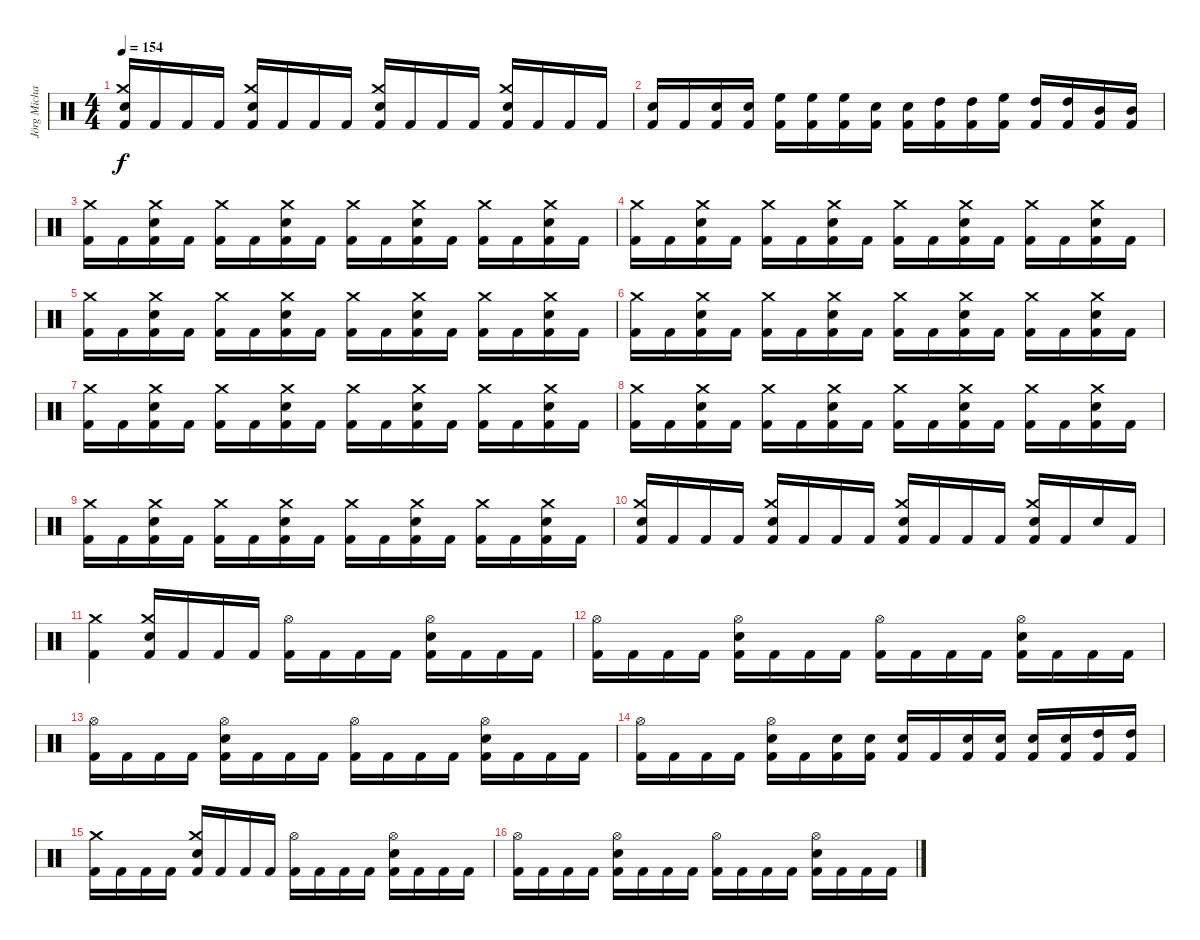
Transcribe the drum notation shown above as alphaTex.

\track ("Jörg Michael" "Jörg Micha") {instrument percussion}
\staff {score}
\articulation defaults
\ts (4 4)
\tempo 154
\clef neutral
\ks c
("Snare (hit) 2" "Crash medium (hit)" "Kick (hit) 2").16{dy f} "Kick (hit) 2".16 "Kick (hit) 2".16 "Kick (hit) 2".16 ("Snare (hit) 2" "Crash medium (hit)" "Kick (hit) 2").16 "Kick (hit) 2".16 "Kick (hit) 2".16 "Kick (hit) 2".16 ("Snare (hit) 2" "Crash medium (hit)" "Kick (hit) 2").16 "Kick (hit) 2".16 "Kick (hit) 2".16 "Kick (hit) 2".16 ("Snare (hit) 2" "Crash medium (hit)" "Kick (hit) 2").16 "Kick (hit) 2".16 "Kick (hit) 2".16 "Kick (hit) 2".16 |
("Snare (hit) 2" "Kick (hit) 2").16 "Kick (hit) 2".16 ("Snare (hit) 2" "Kick (hit) 2").16 ("Snare (hit) 2" "Kick (hit) 2").16 ("High Floor Tom (hit)" "Kick (hit) 2").16 ("High Floor Tom (hit)" "Kick (hit) 2").16 ("High Floor Tom (hit)" "Kick (hit) 2").16 ("Snare (hit) 2" "Kick (hit) 2").16 ("Snare (hit) 2" "Kick (hit) 2").16 ("High Tom (hit)" "Kick (hit) 2").16 ("High Tom (hit)" "Kick (hit) 2").16 ("High Floor Tom (hit)" "Kick (hit) 2").16 ("High Tom (hit)" "Kick (hit) 2").16 ("High Tom (hit)" "Kick (hit) 2").16 ("Mid Tom (hit)" "Kick (hit) 2").16 ("Mid Tom (hit)" "Kick (hit) 2").16 |
("Crash medium (hit)" "Kick (hit) 2").16 "Kick (hit) 2".16 ("Snare (hit) 2" "Crash medium (hit)" "Kick (hit) 2").16 "Kick (hit) 2".16 ("Crash medium (hit)" "Kick (hit) 2").16 "Kick (hit) 2".16 ("Snare (hit) 2" "Crash medium (hit)" "Kick (hit) 2").16 "Kick (hit) 2".16 ("Crash medium (hit)" "Kick (hit) 2").16 "Kick (hit) 2".16 ("Snare (hit) 2" "Crash medium (hit)" "Kick (hit) 2").16 "Kick (hit) 2".16 ("Crash medium (hit)" "Kick (hit) 2").16 "Kick (hit) 2".16 ("Snare (hit) 2" "Crash medium (hit)" "Kick (hit) 2").16 "Kick (hit) 2".16 |
("Crash medium (hit)" "Kick (hit) 2").16 "Kick (hit) 2".16 ("Snare (hit) 2" "Crash medium (hit)" "Kick (hit) 2").16 "Kick (hit) 2".16 ("Crash medium (hit)" "Kick (hit) 2").16 "Kick (hit) 2".16 ("Snare (hit) 2" "Crash medium (hit)" "Kick (hit) 2").16 "Kick (hit) 2".16 ("Crash medium (hit)" "Kick (hit) 2").16 "Kick (hit) 2".16 ("Snare (hit) 2" "Crash medium (hit)" "Kick (hit) 2").16 "Kick (hit) 2".16 ("Crash medium (hit)" "Kick (hit) 2").16 "Kick (hit) 2".16 ("Snare (hit) 2" "Crash medium (hit)" "Kick (hit) 2").16 "Kick (hit) 2".16 |
("Crash medium (hit)" "Kick (hit) 2").16 "Kick (hit) 2".16 ("Snare (hit) 2" "Crash medium (hit)" "Kick (hit) 2").16 "Kick (hit) 2".16 ("Crash medium (hit)" "Kick (hit) 2").16 "Kick (hit) 2".16 ("Snare (hit) 2" "Crash medium (hit)" "Kick (hit) 2").16 "Kick (hit) 2".16 ("Crash medium (hit)" "Kick (hit) 2").16 "Kick (hit) 2".16 ("Snare (hit) 2" "Crash medium (hit)" "Kick (hit) 2").16 "Kick (hit) 2".16 ("Crash medium (hit)" "Kick (hit) 2").16 "Kick (hit) 2".16 ("Snare (hit) 2" "Crash medium (hit)" "Kick (hit) 2").16 "Kick (hit) 2".16 |
("Crash medium (hit)" "Kick (hit) 2").16 "Kick (hit) 2".16 ("Snare (hit) 2" "Crash medium (hit)" "Kick (hit) 2").16 "Kick (hit) 2".16 ("Crash medium (hit)" "Kick (hit) 2").16 "Kick (hit) 2".16 ("Snare (hit) 2" "Crash medium (hit)" "Kick (hit) 2").16 "Kick (hit) 2".16 ("Crash medium (hit)" "Kick (hit) 2").16 "Kick (hit) 2".16 ("Snare (hit) 2" "Crash medium (hit)" "Kick (hit) 2").16 "Kick (hit) 2".16 ("Crash medium (hit)" "Kick (hit) 2").16 "Kick (hit) 2".16 ("Snare (hit) 2" "Crash medium (hit)" "Kick (hit) 2").16 "Kick (hit) 2".16 |
("Crash medium (hit)" "Kick (hit) 2").16 "Kick (hit) 2".16 ("Snare (hit) 2" "Crash medium (hit)" "Kick (hit) 2").16 "Kick (hit) 2".16 ("Crash medium (hit)" "Kick (hit) 2").16 "Kick (hit) 2".16 ("Snare (hit) 2" "Crash medium (hit)" "Kick (hit) 2").16 "Kick (hit) 2".16 ("Crash medium (hit)" "Kick (hit) 2").16 "Kick (hit) 2".16 ("Snare (hit) 2" "Crash medium (hit)" "Kick (hit) 2").16 "Kick (hit) 2".16 ("Crash medium (hit)" "Kick (hit) 2").16 "Kick (hit) 2".16 ("Snare (hit) 2" "Crash medium (hit)" "Kick (hit) 2").16 "Kick (hit) 2".16 |
("Crash medium (hit)" "Kick (hit) 2").16 "Kick (hit) 2".16 ("Snare (hit) 2" "Crash medium (hit)" "Kick (hit) 2").16 "Kick (hit) 2".16 ("Crash medium (hit)" "Kick (hit) 2").16 "Kick (hit) 2".16 ("Snare (hit) 2" "Crash medium (hit)" "Kick (hit) 2").16 "Kick (hit) 2".16 ("Crash medium (hit)" "Kick (hit) 2").16 "Kick (hit) 2".16 ("Snare (hit) 2" "Crash medium (hit)" "Kick (hit) 2").16 "Kick (hit) 2".16 ("Crash medium (hit)" "Kick (hit) 2").16 "Kick (hit) 2".16 ("Snare (hit) 2" "Crash medium (hit)" "Kick (hit) 2").16 "Kick (hit) 2".16 |
("Crash medium (hit)" "Kick (hit) 2").16 "Kick (hit) 2".16 ("Snare (hit) 2" "Crash medium (hit)" "Kick (hit) 2").16 "Kick (hit) 2".16 ("Crash medium (hit)" "Kick (hit) 2").16 "Kick (hit) 2".16 ("Snare (hit) 2" "Crash medium (hit)" "Kick (hit) 2").16 "Kick (hit) 2".16 ("Crash medium (hit)" "Kick (hit) 2").16 "Kick (hit) 2".16 ("Snare (hit) 2" "Crash medium (hit)" "Kick (hit) 2").16 "Kick (hit) 2".16 ("Crash medium (hit)" "Kick (hit) 2").16 "Kick (hit) 2".16 ("Snare (hit) 2" "Crash medium (hit)" "Kick (hit) 2").16 "Kick (hit) 2".16 |
("Snare (hit) 2" "Crash medium (hit)" "Kick (hit) 2").16 "Kick (hit) 2".16 "Kick (hit) 2".16 "Kick (hit) 2".16 ("Snare (hit) 2" "Crash medium (hit)" "Kick (hit) 2").16 "Kick (hit) 2".16 "Kick (hit) 2".16 "Kick (hit) 2".16 ("Snare (hit) 2" "Crash medium (hit)" "Kick (hit) 2").16 "Kick (hit) 2".16 "Kick (hit) 2".16 "Kick (hit) 2".16 ("Snare (hit) 2" "Crash medium (hit)" "Kick (hit) 2").16 "Kick (hit) 2".16 "Snare (hit) 2".16 "Kick (hit) 2".16 |
("Crash medium (hit)" "Kick (hit) 2").4 ("Kick (hit) 2" "Snare (hit) 2" "Crash medium (hit)").16 "Kick (hit) 2".16 "Kick (hit) 2".16 "Kick (hit) 2".16 ("Hi-Hat (open)" "Kick (hit) 2").16 "Kick (hit) 2".16 "Kick (hit) 2".16 "Kick (hit) 2".16 ("Snare (hit) 2" "Hi-Hat (open)" "Kick (hit) 2").16 "Kick (hit) 2".16 "Kick (hit) 2".16 "Kick (hit) 2".16 |
("Hi-Hat (open)" "Kick (hit) 2").16 "Kick (hit) 2".16 "Kick (hit) 2".16 "Kick (hit) 2".16 ("Snare (hit) 2" "Hi-Hat (open)" "Kick (hit) 2").16 "Kick (hit) 2".16 "Kick (hit) 2".16 "Kick (hit) 2".16 ("Hi-Hat (open)" "Kick (hit) 2").16 "Kick (hit) 2".16 "Kick (hit) 2".16 "Kick (hit) 2".16 ("Snare (hit) 2" "Hi-Hat (open)" "Kick (hit) 2").16 "Kick (hit) 2".16 "Kick (hit) 2".16 "Kick (hit) 2".16 |
("Hi-Hat (open)" "Kick (hit) 2").16 "Kick (hit) 2".16 "Kick (hit) 2".16 "Kick (hit) 2".16 ("Snare (hit) 2" "Hi-Hat (open)" "Kick (hit) 2").16 "Kick (hit) 2".16 "Kick (hit) 2".16 "Kick (hit) 2".16 ("Hi-Hat (open)" "Kick (hit) 2").16 "Kick (hit) 2".16 "Kick (hit) 2".16 "Kick (hit) 2".16 ("Snare (hit) 2" "Hi-Hat (open)" "Kick (hit) 2").16 "Kick (hit) 2".16 "Kick (hit) 2".16 "Kick (hit) 2".16 |
("Hi-Hat (open)" "Kick (hit) 2").16 "Kick (hit) 2".16 "Kick (hit) 2".16 "Kick (hit) 2".16 ("Hi-Hat (open)" "Snare (hit) 2" "Kick (hit) 2").16 "Kick (hit) 2".16 ("Snare (hit) 2" "Kick (hit) 2").16 ("Snare (hit) 2" "Kick (hit) 2").16 ("Snare (hit) 2" "Kick (hit) 2").16 "Kick (hit) 2".16 ("Snare (hit) 2" "Kick (hit) 2").16 ("Snare (hit) 2" "Kick (hit) 2").16 ("Snare (hit) 2" "Kick (hit) 2").16 ("Snare (hit) 2" "Kick (hit) 2").16 ("High Tom (hit)" "Kick (hit) 2").16 ("High Tom (hit)" "Kick (hit) 2").16 |
("Crash medium (hit)" "Kick (hit) 2").16 "Kick (hit) 2".16 "Kick (hit) 2".16 "Kick (hit) 2".16 ("Crash medium (hit)" "Snare (hit) 2" "Kick (hit) 2").16 "Kick (hit) 2".16 "Kick (hit) 2".16 "Kick (hit) 2".16 ("Hi-Hat (open)" "Kick (hit) 2").16 "Kick (hit) 2".16 "Kick (hit) 2".16 "Kick (hit) 2".16 ("Snare (hit) 2" "Hi-Hat (open)" "Kick (hit) 2").16 "Kick (hit) 2".16 "Kick (hit) 2".16 "Kick (hit) 2".16 |
("Hi-Hat (open)" "Kick (hit) 2").16 "Kick (hit) 2".16 "Kick (hit) 2".16 "Kick (hit) 2".16 ("Snare (hit) 2" "Hi-Hat (open)" "Kick (hit) 2").16 "Kick (hit) 2".16 "Kick (hit) 2".16 "Kick (hit) 2".16 ("Hi-Hat (open)" "Kick (hit) 2").16 "Kick (hit) 2".16 "Kick (hit) 2".16 "Kick (hit) 2".16 ("Snare (hit) 2" "Hi-Hat (open)" "Kick (hit) 2").16 "Kick (hit) 2".16 "Kick (hit) 2".16 "Kick (hit) 2".16
